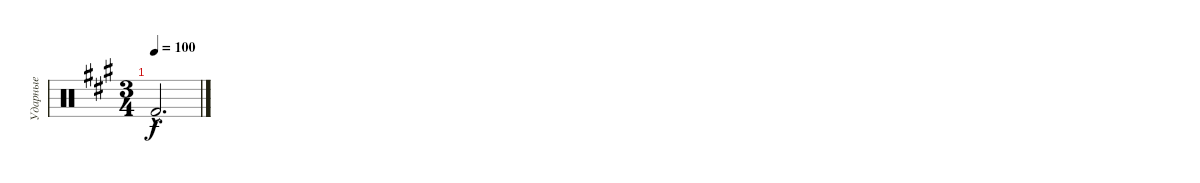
\track ("Ударные" "Ударные") {instrument percussion}
\staff {score}
\articulation defaults
\ts (3 4)
\tempo 100
\clef neutral
\ks f#minor "Kick (hit) 2"{hac}.2{d dy f}
